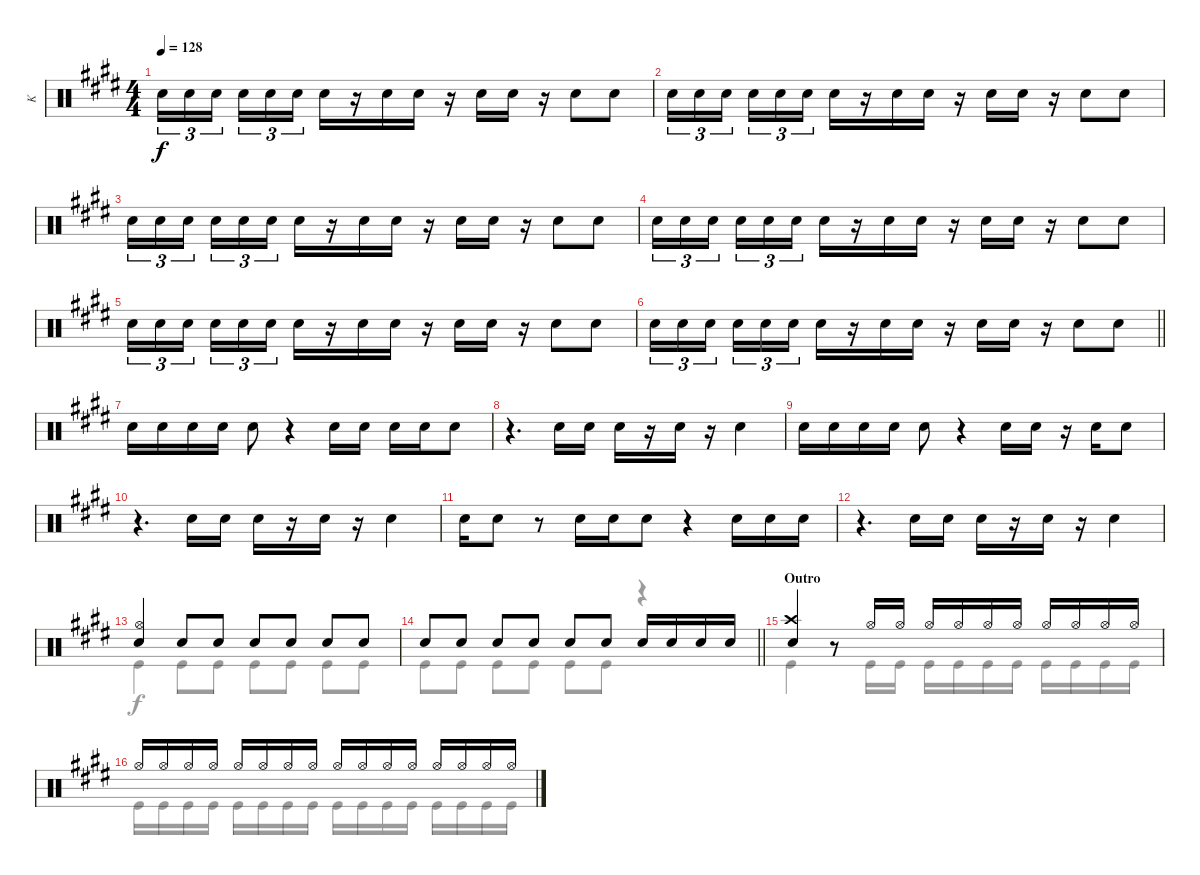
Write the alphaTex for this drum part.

\track ("K" "K") {instrument percussion}
\staff {score}
\articulation defaults
\voice
\ts (4 4)
\tempo 128
\clef neutral
\ks e "Snare (hit) 2".16{tu (3 2) dy f} "Snare (hit) 2".16{tu (3 2)} "Snare (hit) 2".16{tu (3 2) beam splitsecondary} "Snare (hit) 2".16{tu (3 2)} "Snare (hit) 2".16{tu (3 2)} "Snare (hit) 2".16{tu (3 2)} "Snare (hit) 2".16
r.16 "Snare (hit) 2".16 "Snare (hit) 2".16 r.16 "Snare (hit) 2".16 "Snare (hit) 2".16 r.16 "Snare (hit) 2".8 "Snare (hit) 2".8 |
"Snare (hit) 2".16{tu (3 2)} "Snare (hit) 2".16{tu (3 2)} "Snare (hit) 2".16{tu (3 2) beam splitsecondary} "Snare (hit) 2".16{tu (3 2)} "Snare (hit) 2".16{tu (3 2)} "Snare (hit) 2".16{tu (3 2)} "Snare (hit) 2".16 r.16 "Snare (hit) 2".16 "Snare (hit) 2".16 r.16 "Snare (hit) 2".16 "Snare (hit) 2".16 r.16 "Snare (hit) 2".8 "Snare (hit) 2".8 |
"Snare (hit) 2".16{tu (3 2)} "Snare (hit) 2".16{tu (3 2)} "Snare (hit) 2".16{tu (3 2) beam splitsecondary} "Snare (hit) 2".16{tu (3 2)} "Snare (hit) 2".16{tu (3 2)} "Snare (hit) 2".16{tu (3 2)} "Snare (hit) 2".16 r.16 "Snare (hit) 2".16 "Snare (hit) 2".16 r.16 "Snare (hit) 2".16 "Snare (hit) 2".16 r.16 "Snare (hit) 2".8 "Snare (hit) 2".8 |
"Snare (hit) 2".16{tu (3 2)} "Snare (hit) 2".16{tu (3 2)} "Snare (hit) 2".16{tu (3 2) beam splitsecondary} "Snare (hit) 2".16{tu (3 2)} "Snare (hit) 2".16{tu (3 2)} "Snare (hit) 2".16{tu (3 2)} "Snare (hit) 2".16 r.16 "Snare (hit) 2".16 "Snare (hit) 2".16 r.16 "Snare (hit) 2".16 "Snare (hit) 2".16 r.16 "Snare (hit) 2".8 "Snare (hit) 2".8 |
"Snare (hit) 2".16{tu (3 2)} "Snare (hit) 2".16{tu (3 2)} "Snare (hit) 2".16{tu (3 2) beam splitsecondary} "Snare (hit) 2".16{tu (3 2)} "Snare (hit) 2".16{tu (3 2)} "Snare (hit) 2".16{tu (3 2)} "Snare (hit) 2".16 r.16 "Snare (hit) 2".16 "Snare (hit) 2".16 r.16 "Snare (hit) 2".16 "Snare (hit) 2".16 r.16 "Snare (hit) 2".8 "Snare (hit) 2".8 |
\barLineRight lightlight "Snare (hit) 2".16{tu (3 2)} "Snare (hit) 2".16{tu (3 2)} "Snare (hit) 2".16{tu (3 2) beam splitsecondary} "Snare (hit) 2".16{tu (3 2)} "Snare (hit) 2".16{tu (3 2)} "Snare (hit) 2".16{tu (3 2)} "Snare (hit) 2".16
r.16 "Snare (hit) 2".16 "Snare (hit) 2".16 r.16 "Snare (hit) 2".16 "Snare (hit) 2".16 r.16 "Snare (hit) 2".8 "Snare (hit) 2".8 |
"Snare (hit) 2".16 "Snare (hit) 2".16 "Snare (hit) 2".16 "Snare (hit) 2".16 "Snare (hit) 2".8 r.4 "Snare (hit) 2".16 "Snare (hit) 2".16 "Snare (hit) 2".16 "Snare (hit) 2".16 "Snare (hit) 2".8 |
r.4{d} "Snare (hit) 2".16 "Snare (hit) 2".16 "Snare (hit) 2".16 r.16 "Snare (hit) 2".16 r.16 "Snare (hit) 2".4 |
"Snare (hit) 2".16 "Snare (hit) 2".16 "Snare (hit) 2".16 "Snare (hit) 2".16 "Snare (hit) 2".8 r.4 "Snare (hit) 2".16 "Snare (hit) 2".16 r.16 "Snare (hit) 2".16 "Snare (hit) 2".8 |
r.4{d} "Snare (hit) 2".16 "Snare (hit) 2".16 "Snare (hit) 2".16 r.16 "Snare (hit) 2".16 r.16 "Snare (hit) 2".4 |
"Snare (hit) 2".16 "Snare (hit) 2".8 r.8 "Snare (hit) 2".16 "Snare (hit) 2".16 "Snare (hit) 2".8 r.4 "Snare (hit) 2".16 "Snare (hit) 2".16 "Snare (hit) 2".16 |
r.4{d} "Snare (hit) 2".16 "Snare (hit) 2".16 "Snare (hit) 2".16 r.16 "Snare (hit) 2".16 r.16 "Snare (hit) 2".4 |
("Hi-Hat (open)" "Snare (hit) 2").4 "Snare (hit) 2".8 "Snare (hit) 2".8 "Snare (hit) 2".8 "Snare (hit) 2".8 "Snare (hit) 2".8 "Snare (hit) 2".8 |
\barLineRight lightlight "Snare (hit) 2".8 "Snare (hit) 2".8 "Snare (hit) 2".8 "Snare (hit) 2".8 "Snare (hit) 2".8 "Snare (hit) 2".8 "Snare (hit) 2".16 "Snare (hit) 2".16 "Snare (hit) 2".16 "Snare (hit) 2".16
|
\section ("" "Outro")
("Crash high (hit)" "Snare (hit) 2").4 r.8 "Hi-Hat (open)".16 "Hi-Hat (open)".16 "Hi-Hat (open)".16 "Hi-Hat (open)".16 "Hi-Hat (open)".16 "Hi-Hat (open)".16 "Hi-Hat (open)".16 "Hi-Hat (open)".16 "Hi-Hat (open)".16 "Hi-Hat (open)".16 |
"Hi-Hat (open)".16 "Hi-Hat (open)".16 "Hi-Hat (open)".16 "Hi-Hat (open)".16 "Hi-Hat (open)".16 "Hi-Hat (open)".16 "Hi-Hat (open)".16 "Hi-Hat (open)".16 "Hi-Hat (open)".16 "Hi-Hat (open)".16 "Hi-Hat (open)".16 "Hi-Hat (open)".16 "Hi-Hat (open)".16 "Hi-Hat (open)".16 "Hi-Hat (open)".16 "Hi-Hat (open)".16
\voice
\clef neutral
\ottava regular
\simile none
\ks e
|
|
|
|
|
\barLineRight lightlight
|
|
|
|
|
|
|
"Kick (hit)".4 "Kick (hit)".8 "Kick (hit)".8 "Kick (hit)".8 "Kick (hit)".8 "Kick (hit)".8 "Kick (hit)".8 |
\barLineRight lightlight "Kick (hit)".8 "Kick (hit)".8 "Kick (hit)".8 "Kick (hit)".8 "Kick (hit)".8 "Kick (hit)".8
r.4 |
"Kick (hit)".4 r.8 "Kick (hit)".16 "Kick (hit)".16 "Kick (hit)".16 "Kick (hit)".16 "Kick (hit)".16 "Kick (hit)".16 "Kick (hit)".16 "Kick (hit)".16 "Kick (hit)".16 "Kick (hit)".16 |
"Kick (hit)".16 "Kick (hit)".16 "Kick (hit)".16 "Kick (hit)".16 "Kick (hit)".16 "Kick (hit)".16 "Kick (hit)".16 "Kick (hit)".16 "Kick (hit)".16 "Kick (hit)".16 "Kick (hit)".16 "Kick (hit)".16 "Kick (hit)".16 "Kick (hit)".16 "Kick (hit)".16 "Kick (hit)".16
